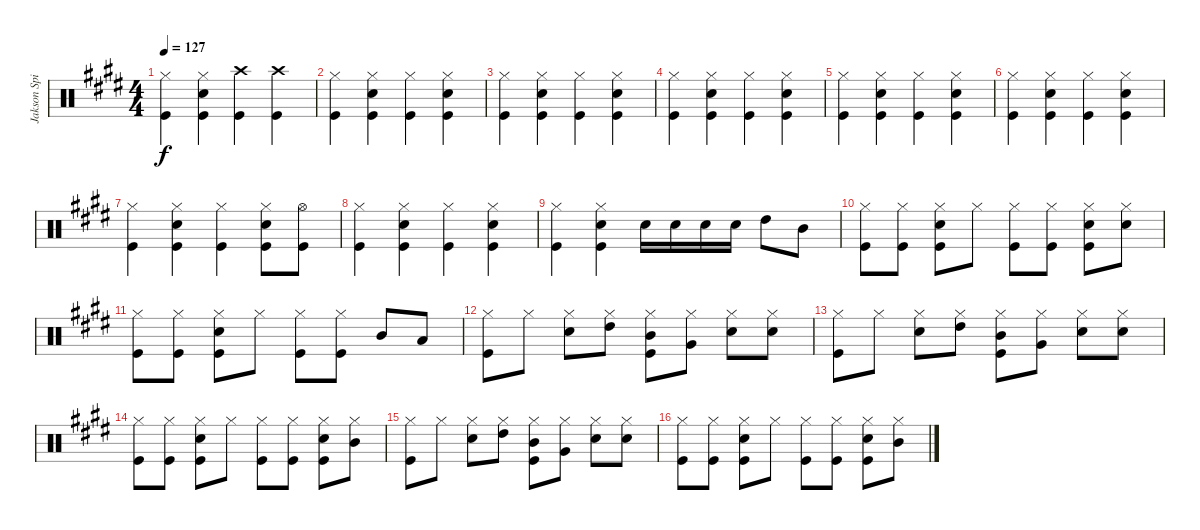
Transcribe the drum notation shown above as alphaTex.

\track ("Jakson Spiers Drums" "Jakson Spi") {instrument percussion}
\staff {score}
\articulation defaults
\ts (4 4)
\tempo 127
\clef neutral
\ks e
("Hi-Hat (closed)" "Kick (hit)").4{dy f} ("Hi-Hat (closed)" "Snare (hit) 2" "Kick (hit)").4 ("Crash high (hit)" "Kick (hit)").4 ("Crash high (hit)" "Kick (hit)").4 |
("Hi-Hat (closed)" "Kick (hit)").4 ("Hi-Hat (closed)" "Snare (hit) 2" "Kick (hit)").4 ("Hi-Hat (closed)" "Kick (hit)").4 ("Hi-Hat (closed)" "Snare (hit) 2" "Kick (hit)").4 |
("Hi-Hat (closed)" "Kick (hit)").4 ("Hi-Hat (closed)" "Snare (hit) 2" "Kick (hit)").4 ("Hi-Hat (closed)" "Kick (hit)").4 ("Hi-Hat (closed)" "Snare (hit) 2" "Kick (hit)").4 |
("Hi-Hat (closed)" "Kick (hit)").4 ("Hi-Hat (closed)" "Snare (hit) 2" "Kick (hit)").4 ("Hi-Hat (closed)" "Kick (hit)").4 ("Hi-Hat (closed)" "Snare (hit) 2" "Kick (hit)").4 |
("Hi-Hat (closed)" "Kick (hit)").4 ("Hi-Hat (closed)" "Snare (hit) 2" "Kick (hit)").4 ("Hi-Hat (closed)" "Kick (hit)").4 ("Hi-Hat (closed)" "Snare (hit) 2" "Kick (hit)").4 |
("Hi-Hat (closed)" "Kick (hit)").4 ("Hi-Hat (closed)" "Snare (hit) 2" "Kick (hit)").4 ("Hi-Hat (closed)" "Kick (hit)").4 ("Hi-Hat (closed)" "Snare (hit) 2" "Kick (hit)").4 |
("Hi-Hat (closed)" "Kick (hit)").4 ("Hi-Hat (closed)" "Snare (hit) 2" "Kick (hit)").4 ("Hi-Hat (closed)" "Kick (hit)").4 ("Hi-Hat (closed)" "Snare (hit) 2" "Kick (hit)").8 ("Hi-Hat (open)" "Kick (hit)").8 |
("Hi-Hat (closed)" "Kick (hit)").4 ("Hi-Hat (closed)" "Snare (hit) 2" "Kick (hit)").4 ("Hi-Hat (closed)" "Kick (hit)").4 ("Hi-Hat (closed)" "Snare (hit) 2" "Kick (hit)").4 |
("Hi-Hat (closed)" "Kick (hit)").4 ("Hi-Hat (closed)" "Snare (hit) 2" "Kick (hit)").4 "Snare (hit) 2".16 "Snare (hit) 2".16 "Snare (hit) 2".16 "Snare (hit) 2".16 "High Tom (hit)".8 "Mid Tom (hit)".8 |
("Hi-Hat (closed)" "Kick (hit)").8 ("Hi-Hat (closed)" "Kick (hit)").8 ("Hi-Hat (closed)" "Snare (hit) 2" "Kick (hit)").8 "Hi-Hat (closed)".8 ("Hi-Hat (closed)" "Kick (hit)").8 ("Hi-Hat (closed)" "Kick (hit)").8 ("Hi-Hat (closed)" "Snare (hit) 2" "Kick (hit)").8 ("Hi-Hat (closed)" "Snare (hit) 2").8 |
("Hi-Hat (closed)" "Kick (hit)").8 ("Hi-Hat (closed)" "Kick (hit)").8 ("Hi-Hat (closed)" "Snare (hit) 2" "Kick (hit)").8 "Hi-Hat (closed)".8 ("Hi-Hat (closed)" "Kick (hit)").8 ("Hi-Hat (closed)" "Kick (hit)").8 "Mid Tom (hit)".8 "Low Tom (hit)".8 |
("Hi-Hat (closed)" "Kick (hit)").8 "Hi-Hat (closed)".8 ("Hi-Hat (closed)" "Snare (hit) 2").8 ("Hi-Hat (closed)" "High Tom (hit)").8 ("Hi-Hat (closed)" "Mid Tom (hit)" "Kick (hit)").8 ("Hi-Hat (closed)" "Very Low Tom (hit)").8 ("Hi-Hat (closed)" "Snare (hit) 2").8 ("Hi-Hat (closed)" "Snare (hit) 2").8 |
("Hi-Hat (closed)" "Kick (hit)").8 "Hi-Hat (closed)".8 ("Hi-Hat (closed)" "Snare (hit) 2").8 ("Hi-Hat (closed)" "High Tom (hit)").8 ("Hi-Hat (closed)" "Mid Tom (hit)" "Kick (hit)").8 ("Hi-Hat (closed)" "Very Low Tom (hit)").8 ("Hi-Hat (closed)" "Snare (hit) 2").8 ("Hi-Hat (closed)" "Snare (hit) 2").8 |
("Hi-Hat (closed)" "Kick (hit)").8 ("Hi-Hat (closed)" "Kick (hit)").8 ("Hi-Hat (closed)" "Snare (hit) 2" "Kick (hit)").8 "Hi-Hat (closed)".8 ("Hi-Hat (closed)" "Kick (hit)").8 ("Hi-Hat (closed)" "Kick (hit)").8 ("Hi-Hat (closed)" "Snare (hit) 2" "Kick (hit)").8 ("Hi-Hat (closed)" "Mid Tom (hit)").8 |
("Hi-Hat (closed)" "Kick (hit)").8 "Hi-Hat (closed)".8 ("Hi-Hat (closed)" "Snare (hit) 2").8 ("Hi-Hat (closed)" "High Tom (hit)").8 ("Hi-Hat (closed)" "Mid Tom (hit)" "Kick (hit)").8 ("Hi-Hat (closed)" "Very Low Tom (hit)").8 ("Hi-Hat (closed)" "Snare (hit) 2").8 ("Hi-Hat (closed)" "Snare (hit) 2").8 |
("Hi-Hat (closed)" "Kick (hit)").8 ("Hi-Hat (closed)" "Kick (hit)").8 ("Hi-Hat (closed)" "Snare (hit) 2" "Kick (hit)").8 "Hi-Hat (closed)".8 ("Hi-Hat (closed)" "Kick (hit)").8 ("Hi-Hat (closed)" "Kick (hit)").8 ("Hi-Hat (closed)" "Snare (hit) 2" "Kick (hit)").8 ("Hi-Hat (closed)" "Mid Tom (hit)").8
